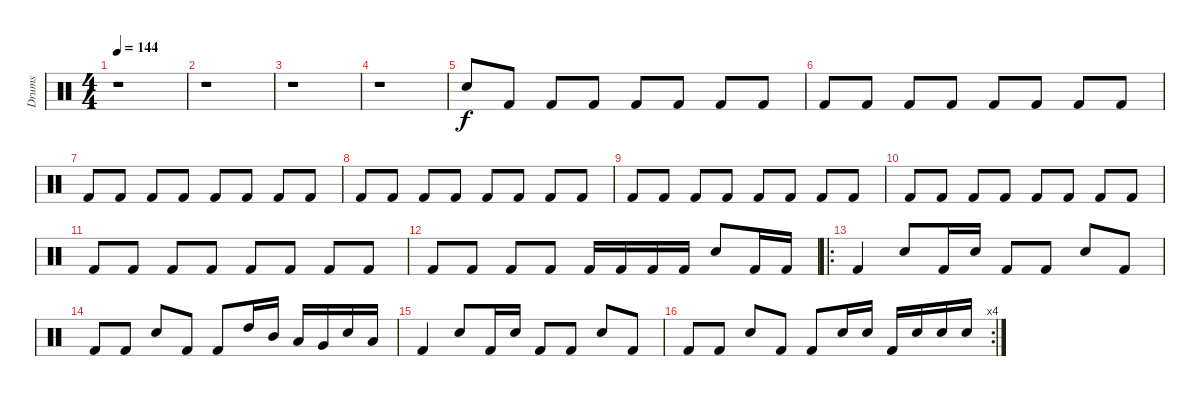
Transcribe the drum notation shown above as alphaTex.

\track ("Drums" "Drums") {instrument percussion}
\staff {score}
\articulation defaults
\ts (4 4)
\tempo 144
\clef neutral
\ks c
r.1{dy f} |
r.1 |
r.1 |
r.1 |
"Electric Snare (hit)".8 "Kick (hit) 2".8 "Kick (hit) 2".8 "Kick (hit) 2".8 "Kick (hit) 2".8 "Kick (hit) 2".8 "Kick (hit) 2".8 "Kick (hit) 2".8 |
"Kick (hit) 2".8 "Kick (hit) 2".8 "Kick (hit) 2".8 "Kick (hit) 2".8 "Kick (hit) 2".8 "Kick (hit) 2".8 "Kick (hit) 2".8 "Kick (hit) 2".8 |
"Kick (hit) 2".8 "Kick (hit) 2".8 "Kick (hit) 2".8 "Kick (hit) 2".8 "Kick (hit) 2".8 "Kick (hit) 2".8 "Kick (hit) 2".8 "Kick (hit) 2".8 |
"Kick (hit) 2".8 "Kick (hit) 2".8 "Kick (hit) 2".8 "Kick (hit) 2".8 "Kick (hit) 2".8 "Kick (hit) 2".8 "Kick (hit) 2".8 "Kick (hit) 2".8 |
"Kick (hit) 2".8 "Kick (hit) 2".8 "Kick (hit) 2".8 "Kick (hit) 2".8 "Kick (hit) 2".8 "Kick (hit) 2".8 "Kick (hit) 2".8 "Kick (hit) 2".8 |
"Kick (hit) 2".8 "Kick (hit) 2".8 "Kick (hit) 2".8 "Kick (hit) 2".8 "Kick (hit) 2".8 "Kick (hit) 2".8 "Kick (hit) 2".8 "Kick (hit) 2".8 |
"Kick (hit) 2".8 "Kick (hit) 2".8 "Kick (hit) 2".8 "Kick (hit) 2".8 "Kick (hit) 2".8 "Kick (hit) 2".8 "Kick (hit) 2".8 "Kick (hit) 2".8 |
"Kick (hit) 2".8 "Kick (hit) 2".8 "Kick (hit) 2".8 "Kick (hit) 2".8 "Kick (hit) 2".16 "Kick (hit) 2".16 "Kick (hit) 2".16 "Kick (hit) 2".16 "Electric Snare (hit)".8 "Kick (hit) 2".16 "Kick (hit) 2".16 |
\ro "Kick (hit) 2".4 "Electric Snare (hit)".8 "Kick (hit) 2".16 "Electric Snare (hit)".16 "Kick (hit) 2".8 "Kick (hit) 2".8 "Electric Snare (hit)".8 "Kick (hit) 2".8
|
"Kick (hit) 2".8 "Kick (hit) 2".8 "Electric Snare (hit)".8 "Kick (hit) 2".8 "Kick (hit) 2".8 "High Tom (hit)".16 "Mid Tom (hit)".16 "Low Tom (hit)".16 "Very Low Tom (hit)".16 "Electric Snare (hit)".16 "Low Floor Tom (hit)".16 |
"Kick (hit) 2".4 "Electric Snare (hit)".8 "Kick (hit) 2".16 "Electric Snare (hit)".16 "Kick (hit) 2".8 "Kick (hit) 2".8 "Electric Snare (hit)".8 "Kick (hit) 2".8 |
\rc 4 "Kick (hit) 2".8 "Kick (hit) 2".8 "Electric Snare (hit)".8 "Kick (hit) 2".8 "Kick (hit) 2".8 "Electric Snare (hit)".16 "Electric Snare (hit)".16 "Kick (hit) 2".16 "Electric Snare (hit)".16 "Electric Snare (hit)".16 "Electric Snare (hit)".16
